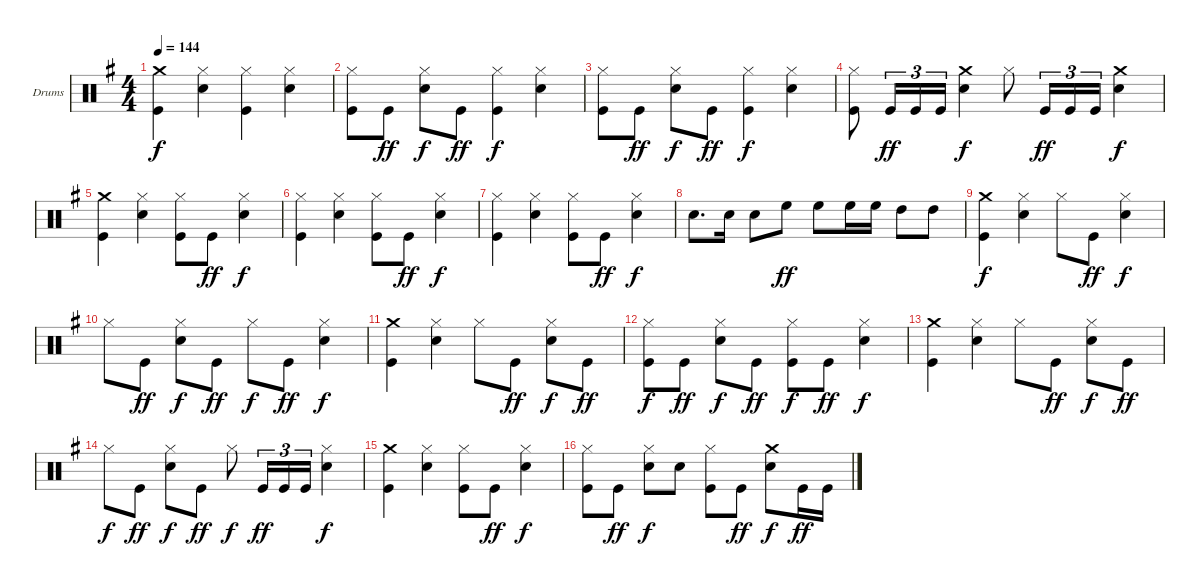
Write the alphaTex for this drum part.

\bracketExtendMode groupsimilarinstruments
\firstSystemTrackNameOrientation horizontal
\otherSystemsTrackNameOrientation horizontal
\track ("Drumkit" "Drums") {instrument percussion}
\staff {score}
\articulation defaults
\ts (4 4)
\tempo 144
\clef neutral
\ks g
("Crash medium (hit)" "Kick (hit)").4{dy f} ("Hi-Hat (closed)" "Snare (hit) 2").4 ("Hi-Hat (closed)" "Kick (hit)").4 ("Hi-Hat (closed)" "Snare (hit) 2").4 |
("Hi-Hat (closed)" "Kick (hit)").8 "Kick (hit)".8{dy ff} ("Hi-Hat (closed)" "Snare (hit) 2").8{dy f} "Kick (hit)".8{dy ff} ("Hi-Hat (closed)" "Kick (hit)").4{dy f} ("Hi-Hat (closed)" "Snare (hit) 2").4 |
("Hi-Hat (closed)" "Kick (hit)").8 "Kick (hit)".8{dy ff} ("Hi-Hat (closed)" "Snare (hit) 2").8{dy f} "Kick (hit)".8{dy ff} ("Hi-Hat (closed)" "Kick (hit)").4{dy f} ("Hi-Hat (closed)" "Snare (hit) 2").4 |
("Hi-Hat (closed)" "Kick (hit)").8 "Kick (hit)".16{tu (3 2) dy ff} "Kick (hit)".16{tu (3 2)} "Kick (hit)".16{tu (3 2)} ("Crash medium (hit)" "Snare (hit) 2").4{dy f} "Hi-Hat (closed)".8 "Kick (hit)".16{tu (3 2) dy ff} "Kick (hit)".16{tu (3 2)} "Kick (hit)".16{tu (3 2)} ("Crash medium (hit)" "Snare (hit) 2").4{dy f} |
("Crash medium (hit)" "Kick (hit)").4 ("Hi-Hat (closed)" "Snare (hit) 2").4 ("Hi-Hat (closed)" "Kick (hit)").8 "Kick (hit)".8{dy ff} ("Hi-Hat (closed)" "Snare (hit) 2").4{dy f} |
("Hi-Hat (closed)" "Kick (hit)").4 ("Hi-Hat (closed)" "Snare (hit) 2").4 ("Hi-Hat (closed)" "Kick (hit)").8 "Kick (hit)".8{dy ff} ("Hi-Hat (closed)" "Snare (hit) 2").4{dy f} |
("Hi-Hat (closed)" "Kick (hit)").4 ("Hi-Hat (closed)" "Snare (hit) 2").4 ("Hi-Hat (closed)" "Kick (hit)").8 "Kick (hit)".8{dy ff} ("Hi-Hat (closed)" "Snare (hit) 2").4{dy f} |
"Snare (hit) 2".8{d} "Snare (hit) 2".16 "Snare (hit) 2".8 "High Floor Tom (hit)".8{dy ff} "High Floor Tom (hit)".8 "High Floor Tom (hit)".16 "High Floor Tom (hit)".16 "High Tom (hit)".8 "High Tom (hit)".8 |
("Crash medium (hit)" "Kick (hit)").4{dy f} ("Hi-Hat (closed)" "Snare (hit) 2").4 "Hi-Hat (closed)".8 "Kick (hit)".8{dy ff} ("Hi-Hat (closed)" "Snare (hit) 2").4{dy f} |
"Hi-Hat (closed)".8 "Kick (hit)".8{dy ff} ("Hi-Hat (closed)" "Snare (hit) 2").8{dy f} "Kick (hit)".8{dy ff} "Hi-Hat (closed)".8{dy f} "Kick (hit)".8{dy ff} ("Hi-Hat (closed)" "Snare (hit) 2").4{dy f} |
("Crash medium (hit)" "Kick (hit)").4 ("Hi-Hat (closed)" "Snare (hit) 2").4 "Hi-Hat (closed)".8 "Kick (hit)".8{dy ff} ("Hi-Hat (closed)" "Snare (hit) 2").8{dy f} "Kick (hit)".8{dy ff} |
("Hi-Hat (closed)" "Kick (hit)").8{dy f} "Kick (hit)".8{dy ff} ("Hi-Hat (closed)" "Snare (hit) 2").8{dy f} "Kick (hit)".8{dy ff} ("Hi-Hat (closed)" "Kick (hit)").8{dy f} "Kick (hit)".8{dy ff} ("Hi-Hat (closed)" "Snare (hit) 2").4{dy f} |
("Crash medium (hit)" "Kick (hit)").4 ("Hi-Hat (closed)" "Snare (hit) 2").4 "Hi-Hat (closed)".8 "Kick (hit)".8{dy ff} ("Hi-Hat (closed)" "Snare (hit) 2").8{dy f} "Kick (hit)".8{dy ff} |
"Hi-Hat (closed)".8{dy f} "Kick (hit)".8{dy ff} ("Hi-Hat (closed)" "Snare (hit) 2").8{dy f} "Kick (hit)".8{dy ff} "Hi-Hat (closed)".8{dy f} "Kick (hit)".16{tu (3 2) dy ff} "Kick (hit)".16{tu (3 2)} "Kick (hit)".16{tu (3 2)} ("Hi-Hat (closed)" "Snare (hit) 2").4{dy f} |
("Crash medium (hit)" "Kick (hit)").4 ("Hi-Hat (closed)" "Snare (hit) 2").4 ("Hi-Hat (closed)" "Kick (hit)").8 "Kick (hit)".8{dy ff} ("Hi-Hat (closed)" "Snare (hit) 2").4{dy f} |
("Hi-Hat (closed)" "Kick (hit)").8 "Kick (hit)".8{dy ff} ("Hi-Hat (closed)" "Snare (hit) 2").8{dy f} "Snare (hit) 2".8 ("Hi-Hat (closed)" "Kick (hit)").8 "Kick (hit)".8{dy ff} ("Crash medium (hit)" "Snare (hit) 2").8{dy f} "Kick (hit)".16{dy ff} "Kick (hit)".16
